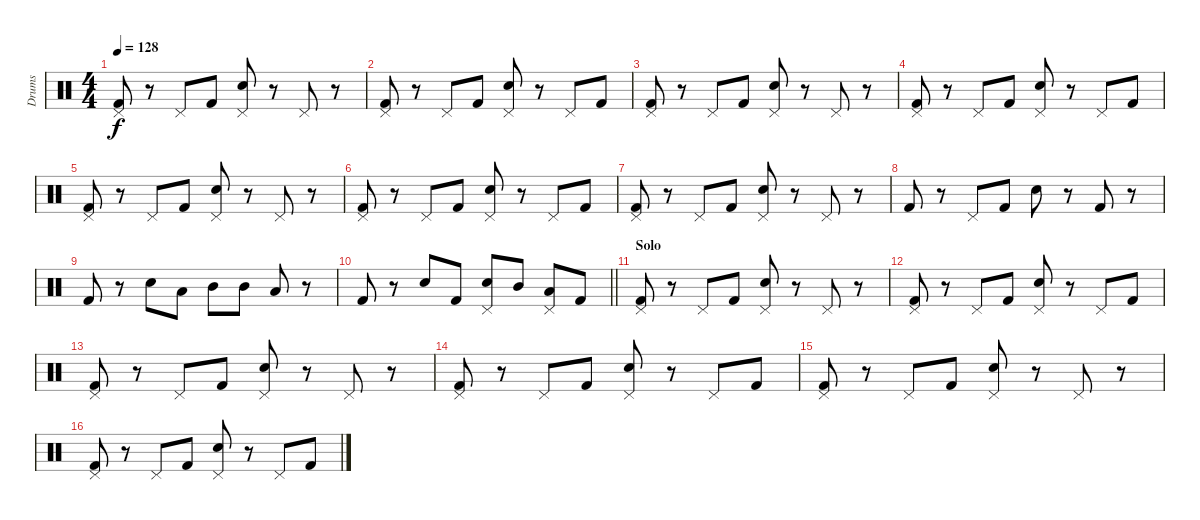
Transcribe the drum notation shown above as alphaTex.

\track ("Drums" "Drums") {instrument percussion}
\staff {score}
\articulation defaults
\ts (4 4)
\tempo 128
\clef neutral
\ks c
("Pedal Hi-Hat (hit)" "Kick (hit) 2").8{dy f} r.8 "Pedal Hi-Hat (hit)".8 "Kick (hit) 2".8 ("Pedal Hi-Hat (hit)" "Electric Snare (hit)").8 r.8 "Pedal Hi-Hat (hit)".8 r.8 |
("Pedal Hi-Hat (hit)" "Kick (hit) 2").8 r.8 "Pedal Hi-Hat (hit)".8 "Kick (hit) 2".8 ("Pedal Hi-Hat (hit)" "Electric Snare (hit)").8 r.8 "Pedal Hi-Hat (hit)".8 "Kick (hit) 2".8 |
("Pedal Hi-Hat (hit)" "Kick (hit) 2").8 r.8 "Pedal Hi-Hat (hit)".8 "Kick (hit) 2".8 ("Pedal Hi-Hat (hit)" "Electric Snare (hit)").8 r.8 "Pedal Hi-Hat (hit)".8 r.8 |
("Pedal Hi-Hat (hit)" "Kick (hit) 2").8 r.8 "Pedal Hi-Hat (hit)".8 "Kick (hit) 2".8 ("Pedal Hi-Hat (hit)" "Electric Snare (hit)").8 r.8 "Pedal Hi-Hat (hit)".8 "Kick (hit) 2".8 |
("Pedal Hi-Hat (hit)" "Kick (hit) 2").8 r.8 "Pedal Hi-Hat (hit)".8 "Kick (hit) 2".8 ("Pedal Hi-Hat (hit)" "Electric Snare (hit)").8 r.8 "Pedal Hi-Hat (hit)".8 r.8 |
("Pedal Hi-Hat (hit)" "Kick (hit) 2").8 r.8 "Pedal Hi-Hat (hit)".8 "Kick (hit) 2".8 ("Pedal Hi-Hat (hit)" "Electric Snare (hit)").8 r.8 "Pedal Hi-Hat (hit)".8 "Kick (hit) 2".8 |
("Pedal Hi-Hat (hit)" "Kick (hit) 2").8 r.8 "Pedal Hi-Hat (hit)".8 "Kick (hit) 2".8 ("Pedal Hi-Hat (hit)" "Electric Snare (hit)").8 r.8 "Pedal Hi-Hat (hit)".8 r.8 |
"Kick (hit) 2".8 r.8 "Pedal Hi-Hat (hit)".8 "Kick (hit) 2".8 "Electric Snare (hit)".8 r.8 "Kick (hit) 2".8 r.8 |
"Kick (hit) 2".8 r.8 "Electric Snare (hit)".8 "Low Tom (hit)".8 "Mid Tom (hit)".8 "Mid Tom (hit)".8 "Low Tom (hit)".8 r.8 |
\barLineRight lightlight "Kick (hit) 2".8
r.8 "Electric Snare (hit)".8 "Kick (hit) 2".8 ("Pedal Hi-Hat (hit)" "Electric Snare (hit)").8 "Mid Tom (hit)".8 ("Pedal Hi-Hat (hit)" "Low Tom (hit)").8 "Kick (hit) 2".8 |
\section ("" "Solo")
("Pedal Hi-Hat (hit)" "Kick (hit) 2").8 r.8 "Pedal Hi-Hat (hit)".8 "Kick (hit) 2".8 ("Pedal Hi-Hat (hit)" "Electric Snare (hit)").8 r.8 "Pedal Hi-Hat (hit)".8 r.8 |
("Pedal Hi-Hat (hit)" "Kick (hit) 2").8 r.8 "Pedal Hi-Hat (hit)".8 "Kick (hit) 2".8 ("Pedal Hi-Hat (hit)" "Electric Snare (hit)").8 r.8 "Pedal Hi-Hat (hit)".8 "Kick (hit) 2".8 |
("Pedal Hi-Hat (hit)" "Kick (hit) 2").8 r.8 "Pedal Hi-Hat (hit)".8 "Kick (hit) 2".8 ("Pedal Hi-Hat (hit)" "Electric Snare (hit)").8 r.8 "Pedal Hi-Hat (hit)".8 r.8 |
("Pedal Hi-Hat (hit)" "Kick (hit) 2").8 r.8 "Pedal Hi-Hat (hit)".8 "Kick (hit) 2".8 ("Pedal Hi-Hat (hit)" "Electric Snare (hit)").8 r.8 "Pedal Hi-Hat (hit)".8 "Kick (hit) 2".8 |
("Pedal Hi-Hat (hit)" "Kick (hit) 2").8 r.8 "Pedal Hi-Hat (hit)".8 "Kick (hit) 2".8 ("Pedal Hi-Hat (hit)" "Electric Snare (hit)").8 r.8 "Pedal Hi-Hat (hit)".8 r.8 |
("Pedal Hi-Hat (hit)" "Kick (hit) 2").8 r.8 "Pedal Hi-Hat (hit)".8 "Kick (hit) 2".8 ("Pedal Hi-Hat (hit)" "Electric Snare (hit)").8 r.8 "Pedal Hi-Hat (hit)".8 "Kick (hit) 2".8
